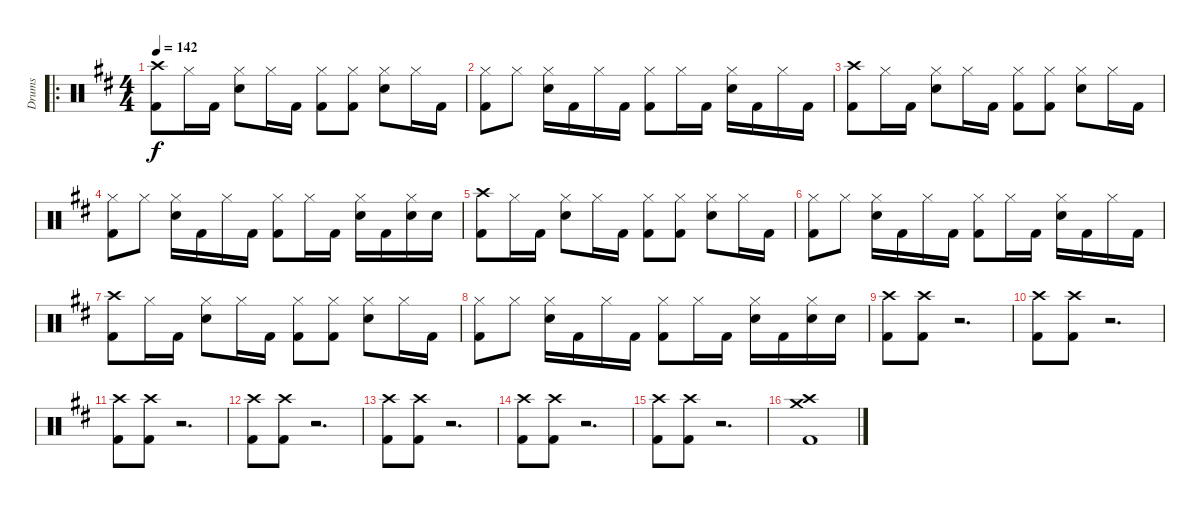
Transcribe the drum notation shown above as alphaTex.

\track ("Drums" "Drums") {instrument percussion}
\staff {score}
\articulation defaults
\ro
\ts (4 4)
\tempo 142
\clef neutral
\ks bminor
("Crash high (hit)" "Kick (hit) 2").8{dy f} "Hi-Hat (closed)".16 "Kick (hit) 2".16 ("Hi-Hat (closed)" "Electric Snare (hit)").8 "Hi-Hat (closed)".16 "Kick (hit) 2".16 ("Hi-Hat (closed)" "Kick (hit) 2").8 ("Hi-Hat (closed)" "Kick (hit) 2").8 ("Hi-Hat (closed)" "Electric Snare (hit)").8 "Hi-Hat (closed)".16 "Kick (hit) 2".16 |
("Hi-Hat (closed)" "Kick (hit) 2").8 "Hi-Hat (closed)".8 ("Hi-Hat (closed)" "Electric Snare (hit)").16 "Kick (hit) 2".16 "Hi-Hat (closed)".16 "Kick (hit) 2".16 ("Hi-Hat (closed)" "Kick (hit) 2").8 "Hi-Hat (closed)".16 "Kick (hit) 2".16 ("Hi-Hat (closed)" "Electric Snare (hit)").16 "Kick (hit) 2".16 "Hi-Hat (closed)".16 "Kick (hit) 2".16 |
("Crash high (hit)" "Kick (hit) 2").8 "Hi-Hat (closed)".16 "Kick (hit) 2".16 ("Hi-Hat (closed)" "Electric Snare (hit)").8 "Hi-Hat (closed)".16 "Kick (hit) 2".16 ("Hi-Hat (closed)" "Kick (hit) 2").8 ("Hi-Hat (closed)" "Kick (hit) 2").8 ("Hi-Hat (closed)" "Electric Snare (hit)").8 "Hi-Hat (closed)".16 "Kick (hit) 2".16 |
("Hi-Hat (closed)" "Kick (hit) 2").8 "Hi-Hat (closed)".8 ("Hi-Hat (closed)" "Electric Snare (hit)").16 "Kick (hit) 2".16 "Hi-Hat (closed)".16 "Kick (hit) 2".16 ("Hi-Hat (closed)" "Kick (hit) 2").8 "Hi-Hat (closed)".16 "Kick (hit) 2".16 ("Hi-Hat (closed)" "Electric Snare (hit)").16 "Kick (hit) 2".16 ("Hi-Hat (closed)" "Electric Snare (hit)").16 "Electric Snare (hit)".16 |
("Crash high (hit)" "Kick (hit) 2").8 "Hi-Hat (closed)".16 "Kick (hit) 2".16 ("Hi-Hat (closed)" "Electric Snare (hit)").8 "Hi-Hat (closed)".16 "Kick (hit) 2".16 ("Hi-Hat (closed)" "Kick (hit) 2").8 ("Hi-Hat (closed)" "Kick (hit) 2").8 ("Hi-Hat (closed)" "Electric Snare (hit)").8 "Hi-Hat (closed)".16 "Kick (hit) 2".16 |
("Hi-Hat (closed)" "Kick (hit) 2").8 "Hi-Hat (closed)".8 ("Hi-Hat (closed)" "Electric Snare (hit)").16 "Kick (hit) 2".16 "Hi-Hat (closed)".16 "Kick (hit) 2".16 ("Hi-Hat (closed)" "Kick (hit) 2").8 "Hi-Hat (closed)".16 "Kick (hit) 2".16 ("Hi-Hat (closed)" "Electric Snare (hit)").16 "Kick (hit) 2".16 "Hi-Hat (closed)".16 "Kick (hit) 2".16 |
("Crash high (hit)" "Kick (hit) 2").8 "Hi-Hat (closed)".16 "Kick (hit) 2".16 ("Hi-Hat (closed)" "Electric Snare (hit)").8 "Hi-Hat (closed)".16 "Kick (hit) 2".16 ("Hi-Hat (closed)" "Kick (hit) 2").8 ("Hi-Hat (closed)" "Kick (hit) 2").8 ("Hi-Hat (closed)" "Electric Snare (hit)").8 "Hi-Hat (closed)".16 "Kick (hit) 2".16 |
("Hi-Hat (closed)" "Kick (hit) 2").8 "Hi-Hat (closed)".8 ("Hi-Hat (closed)" "Electric Snare (hit)").16 "Kick (hit) 2".16 "Hi-Hat (closed)".16 "Kick (hit) 2".16 ("Hi-Hat (closed)" "Kick (hit) 2").8 "Hi-Hat (closed)".16 "Kick (hit) 2".16 ("Hi-Hat (closed)" "Electric Snare (hit)").16 "Kick (hit) 2".16 ("Hi-Hat (closed)" "Electric Snare (hit)").16 "Electric Snare (hit)".16 |
("Crash high (hit)" "Kick (hit) 2").8 ("Crash high (hit)" "Kick (hit) 2").8 r.2{d} |
("Crash high (hit)" "Kick (hit) 2").8 ("Crash high (hit)" "Kick (hit) 2").8 r.2{d} |
("Crash high (hit)" "Kick (hit) 2").8 ("Crash high (hit)" "Kick (hit) 2").8 r.2{d} |
("Crash high (hit)" "Kick (hit) 2").8 ("Crash high (hit)" "Kick (hit) 2").8 r.2{d} |
("Crash high (hit)" "Kick (hit) 2").8 ("Crash high (hit)" "Kick (hit) 2").8 r.2{d} |
("Crash high (hit)" "Kick (hit) 2").8 ("Crash high (hit)" "Kick (hit) 2").8 r.2{d} |
("Crash high (hit)" "Kick (hit) 2").8 ("Crash high (hit)" "Kick (hit) 2").8 r.2{d} |
("Crash medium (hit)" "Crash high (hit)" "Kick (hit) 2").1
